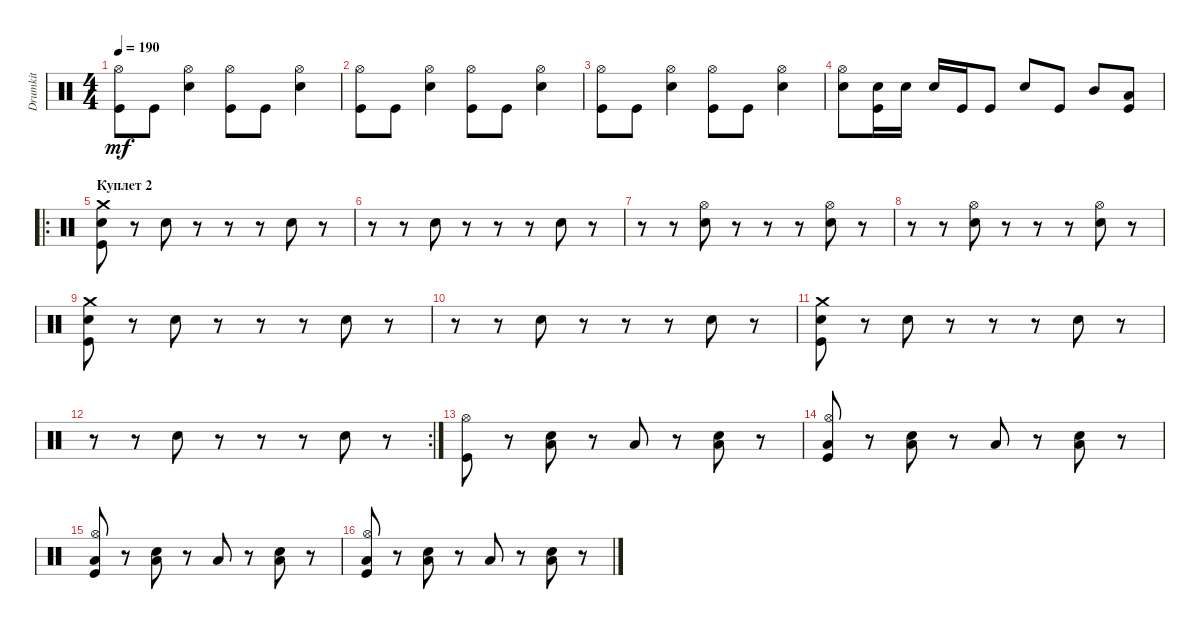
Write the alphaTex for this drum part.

\track ("Drumkit" "Drumkit") {instrument percussion}
\staff {score}
\articulation defaults
\ts (4 4)
\tempo 190
\clef neutral
\ks c
("Kick (hit)" "Hi-Hat (open)").8{dy mf} "Kick (hit)".8 ("Snare (hit) 2" "Hi-Hat (open)").4 ("Kick (hit)" "Hi-Hat (open)").8 "Kick (hit)".8 ("Snare (hit) 2" "Hi-Hat (open)").4 |
("Kick (hit)" "Hi-Hat (open)").8 "Kick (hit)".8 ("Snare (hit) 2" "Hi-Hat (open)").4 ("Kick (hit)" "Hi-Hat (open)").8 "Kick (hit)".8 ("Snare (hit) 2" "Hi-Hat (open)").4 |
("Kick (hit)" "Hi-Hat (open)").8 "Kick (hit)".8 ("Snare (hit) 2" "Hi-Hat (open)").4 ("Kick (hit)" "Hi-Hat (open)").8 "Kick (hit)".8 ("Snare (hit) 2" "Hi-Hat (open)").4 |
("Snare (hit) 2" "Hi-Hat (open)").8 ("Kick (hit)" "Snare (hit) 2").16 "Snare (hit) 2".16 "Snare (hit) 2".16 "Kick (hit)".16 "Kick (hit)".8 "Snare (hit) 2".8 "Kick (hit)".8 "Mid Tom (hit)".8 ("Kick (hit)" "Low Tom (hit)").8 |
\ro
\section ("" "Куплет 2")
("Crash medium (hit)" "Snare (hit) 2" "Kick (hit)").8 r.8 "Snare (hit) 2".8 r.8 r.8 r.8 "Snare (hit) 2".8 r.8 |
r.8 r.8 "Snare (hit) 2".8 r.8 r.8 r.8 "Snare (hit) 2".8 r.8 |
r.8 r.8 ("Snare (hit) 2" "Hi-Hat (open)").8 r.8 r.8 r.8 ("Snare (hit) 2" "Hi-Hat (open)").8 r.8 |
r.8 r.8 ("Snare (hit) 2" "Hi-Hat (open)").8 r.8 r.8 r.8 ("Snare (hit) 2" "Hi-Hat (open)").8 r.8 |
("Crash medium (hit)" "Snare (hit) 2" "Kick (hit)").8 r.8 "Snare (hit) 2".8 r.8 r.8 r.8 "Snare (hit) 2".8 r.8 |
r.8 r.8 "Snare (hit) 2".8 r.8 r.8 r.8 "Snare (hit) 2".8 r.8 |
("Crash medium (hit)" "Snare (hit) 2" "Kick (hit)").8 r.8 "Snare (hit) 2".8 r.8 r.8 r.8 "Snare (hit) 2".8 r.8 |
\rc 2
r.8 r.8 "Snare (hit) 2".8 r.8 r.8 r.8 "Snare (hit) 2".8 r.8 |
("Kick (hit)" "Hi-Hat (open)").8 r.8 ("Snare (hit) 2" "Low Floor Tom (hit)").8 r.8 "Low Floor Tom (hit)".8 r.8 ("Snare (hit) 2" "Low Floor Tom (hit)").8 r.8 |
("Kick (hit)" "Hi-Hat (open)" "Low Floor Tom (hit)").8 r.8 ("Snare (hit) 2" "Low Floor Tom (hit)").8 r.8 "Low Floor Tom (hit)".8 r.8 ("Snare (hit) 2" "Low Floor Tom (hit)").8 r.8 |
("Kick (hit)" "Hi-Hat (open)" "Low Floor Tom (hit)").8 r.8 ("Snare (hit) 2" "Low Floor Tom (hit)").8 r.8 "Low Floor Tom (hit)".8 r.8 ("Snare (hit) 2" "Low Floor Tom (hit)").8 r.8 |
("Kick (hit)" "Hi-Hat (open)" "Low Floor Tom (hit)").8 r.8 ("Snare (hit) 2" "Low Floor Tom (hit)").8 r.8 "Low Floor Tom (hit)".8 r.8 ("Snare (hit) 2" "Low Floor Tom (hit)").8 r.8
